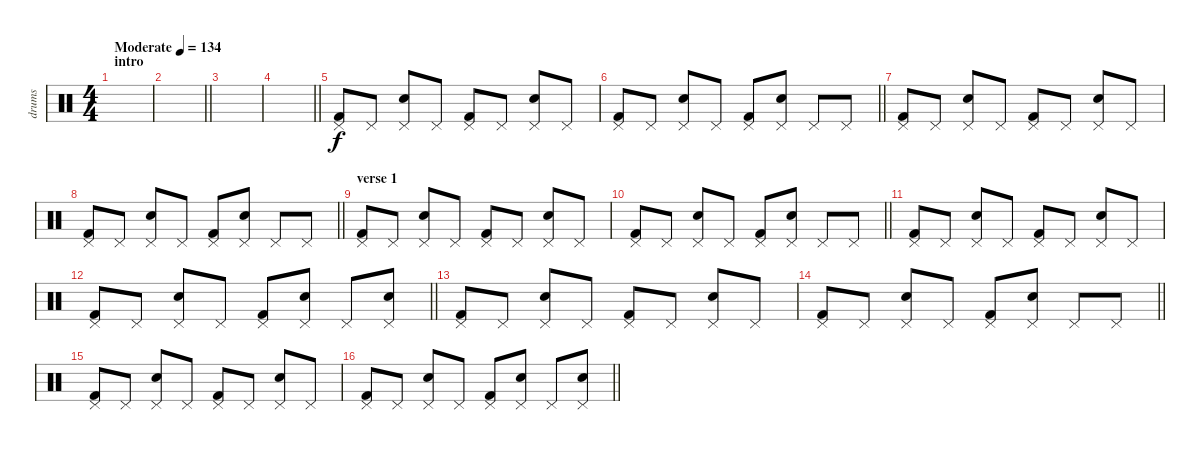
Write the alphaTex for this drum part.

\track ("drums" "drums") {instrument percussion}
\staff {score}
\articulation defaults
\ts (4 4)
\section ("" "intro")
\tempo (134 "Moderate")
\clef neutral
\ks c
|
\barLineRight lightlight
|
|
\barLineRight lightlight
|
("Kick (hit) 2" "Pedal Hi-Hat (hit)").8 "Pedal Hi-Hat (hit)".8 ("Snare (hit) 2" "Pedal Hi-Hat (hit)").8 "Pedal Hi-Hat (hit)".8 ("Kick (hit) 2" "Pedal Hi-Hat (hit)").8 "Pedal Hi-Hat (hit)".8 ("Snare (hit) 2" "Pedal Hi-Hat (hit)").8 "Pedal Hi-Hat (hit)".8 |
\barLineRight lightlight
("Kick (hit) 2" "Pedal Hi-Hat (hit)").8 "Pedal Hi-Hat (hit)".8 ("Snare (hit) 2" "Pedal Hi-Hat (hit)").8 "Pedal Hi-Hat (hit)".8 ("Kick (hit) 2" "Pedal Hi-Hat (hit)").8 ("Snare (hit) 2" "Pedal Hi-Hat (hit)").8 "Pedal Hi-Hat (hit)".8 "Pedal Hi-Hat (hit)".8 |
("Kick (hit) 2" "Pedal Hi-Hat (hit)").8 "Pedal Hi-Hat (hit)".8 ("Snare (hit) 2" "Pedal Hi-Hat (hit)").8 "Pedal Hi-Hat (hit)".8 ("Kick (hit) 2" "Pedal Hi-Hat (hit)").8 "Pedal Hi-Hat (hit)".8 ("Snare (hit) 2" "Pedal Hi-Hat (hit)").8 "Pedal Hi-Hat (hit)".8 |
\barLineRight lightlight
("Kick (hit) 2" "Pedal Hi-Hat (hit)").8 "Pedal Hi-Hat (hit)".8 ("Snare (hit) 2" "Pedal Hi-Hat (hit)").8 "Pedal Hi-Hat (hit)".8 ("Kick (hit) 2" "Pedal Hi-Hat (hit)").8 ("Snare (hit) 2" "Pedal Hi-Hat (hit)").8 "Pedal Hi-Hat (hit)".8 "Pedal Hi-Hat (hit)".8 |
\section ("" "verse 1")
("Kick (hit) 2" "Pedal Hi-Hat (hit)").8 "Pedal Hi-Hat (hit)".8 ("Snare (hit) 2" "Pedal Hi-Hat (hit)").8 "Pedal Hi-Hat (hit)".8 ("Kick (hit) 2" "Pedal Hi-Hat (hit)").8 "Pedal Hi-Hat (hit)".8 ("Snare (hit) 2" "Pedal Hi-Hat (hit)").8 "Pedal Hi-Hat (hit)".8 |
\barLineRight lightlight
("Kick (hit) 2" "Pedal Hi-Hat (hit)").8 "Pedal Hi-Hat (hit)".8 ("Snare (hit) 2" "Pedal Hi-Hat (hit)").8 "Pedal Hi-Hat (hit)".8 ("Kick (hit) 2" "Pedal Hi-Hat (hit)").8 ("Snare (hit) 2" "Pedal Hi-Hat (hit)").8 "Pedal Hi-Hat (hit)".8 "Pedal Hi-Hat (hit)".8 |
("Kick (hit) 2" "Pedal Hi-Hat (hit)").8 "Pedal Hi-Hat (hit)".8 ("Snare (hit) 2" "Pedal Hi-Hat (hit)").8 "Pedal Hi-Hat (hit)".8 ("Kick (hit) 2" "Pedal Hi-Hat (hit)").8 "Pedal Hi-Hat (hit)".8 ("Snare (hit) 2" "Pedal Hi-Hat (hit)").8 "Pedal Hi-Hat (hit)".8 |
\barLineRight lightlight
("Kick (hit) 2" "Pedal Hi-Hat (hit)").8 "Pedal Hi-Hat (hit)".8 ("Snare (hit) 2" "Pedal Hi-Hat (hit)").8 "Pedal Hi-Hat (hit)".8 ("Kick (hit) 2" "Pedal Hi-Hat (hit)").8 ("Snare (hit) 2" "Pedal Hi-Hat (hit)").8 "Pedal Hi-Hat (hit)".8 ("Snare (hit) 2" "Pedal Hi-Hat (hit)").8 |
("Kick (hit) 2" "Pedal Hi-Hat (hit)").8 "Pedal Hi-Hat (hit)".8 ("Snare (hit) 2" "Pedal Hi-Hat (hit)").8 "Pedal Hi-Hat (hit)".8 ("Kick (hit) 2" "Pedal Hi-Hat (hit)").8 "Pedal Hi-Hat (hit)".8 ("Snare (hit) 2" "Pedal Hi-Hat (hit)").8 "Pedal Hi-Hat (hit)".8 |
\barLineRight lightlight
("Kick (hit) 2" "Pedal Hi-Hat (hit)").8 "Pedal Hi-Hat (hit)".8 ("Snare (hit) 2" "Pedal Hi-Hat (hit)").8 "Pedal Hi-Hat (hit)".8 ("Kick (hit) 2" "Pedal Hi-Hat (hit)").8 ("Snare (hit) 2" "Pedal Hi-Hat (hit)").8 "Pedal Hi-Hat (hit)".8 "Pedal Hi-Hat (hit)".8 |
("Kick (hit) 2" "Pedal Hi-Hat (hit)").8 "Pedal Hi-Hat (hit)".8 ("Snare (hit) 2" "Pedal Hi-Hat (hit)").8 "Pedal Hi-Hat (hit)".8 ("Kick (hit) 2" "Pedal Hi-Hat (hit)").8 "Pedal Hi-Hat (hit)".8 ("Snare (hit) 2" "Pedal Hi-Hat (hit)").8 "Pedal Hi-Hat (hit)".8 |
\barLineRight lightlight
("Kick (hit) 2" "Pedal Hi-Hat (hit)").8 "Pedal Hi-Hat (hit)".8 ("Snare (hit) 2" "Pedal Hi-Hat (hit)").8 "Pedal Hi-Hat (hit)".8 ("Kick (hit) 2" "Pedal Hi-Hat (hit)").8 ("Snare (hit) 2" "Pedal Hi-Hat (hit)").8 "Pedal Hi-Hat (hit)".8 ("Snare (hit) 2" "Pedal Hi-Hat (hit)").8
